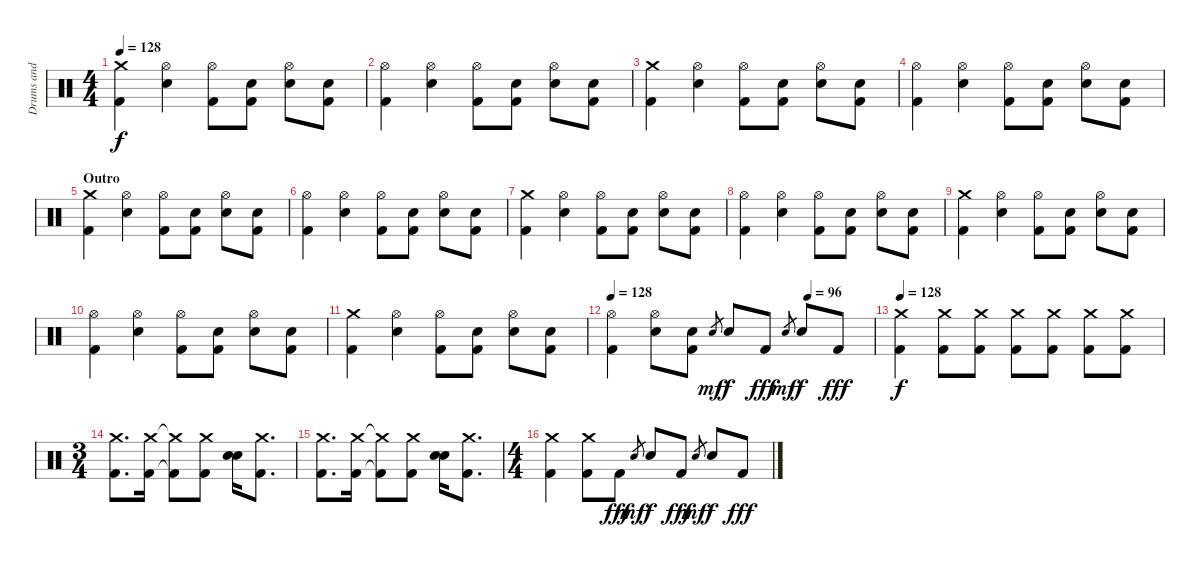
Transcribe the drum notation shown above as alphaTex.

\track ("Drums and Percussion" "Drums and ") {instrument percussion}
\staff {score}
\articulation defaults
\ts (4 4)
\tempo 128
\clef neutral
\ks c
("Crash medium (hit)" "Kick (hit) 2").4{dy f} ("Hi-Hat (open)" "Snare (hit) 2").4 ("Hi-Hat (open)" "Kick (hit) 2").8 ("Snare (hit)" "Kick (hit) 2").8 ("Hi-Hat (open)" "Snare (hit) 2").8 ("Snare (hit)" "Kick (hit) 2").8 |
("Hi-Hat (open)" "Kick (hit) 2").4 ("Hi-Hat (open)" "Snare (hit) 2").4 ("Hi-Hat (open)" "Kick (hit) 2").8 ("Snare (hit)" "Kick (hit) 2").8 ("Hi-Hat (open)" "Snare (hit) 2").8 ("Snare (hit)" "Kick (hit) 2").8 |
("Crash medium (hit)" "Kick (hit) 2").4 ("Hi-Hat (open)" "Snare (hit) 2").4 ("Hi-Hat (open)" "Kick (hit) 2").8 ("Snare (hit)" "Kick (hit) 2").8 ("Hi-Hat (open)" "Snare (hit) 2").8 ("Snare (hit)" "Kick (hit) 2").8 |
("Hi-Hat (open)" "Kick (hit) 2").4 ("Hi-Hat (open)" "Snare (hit) 2").4 ("Hi-Hat (open)" "Kick (hit) 2").8 ("Snare (hit)" "Kick (hit) 2").8 ("Hi-Hat (open)" "Snare (hit) 2").8 ("Snare (hit)" "Kick (hit) 2").8 |
\section ("" "Outro")
("Crash medium (hit)" "Kick (hit) 2").4 ("Hi-Hat (open)" "Snare (hit) 2").4 ("Hi-Hat (open)" "Kick (hit) 2").8 ("Snare (hit)" "Kick (hit) 2").8 ("Hi-Hat (open)" "Snare (hit) 2").8 ("Snare (hit)" "Kick (hit) 2").8 |
("Hi-Hat (open)" "Kick (hit) 2").4 ("Hi-Hat (open)" "Snare (hit) 2").4 ("Hi-Hat (open)" "Kick (hit) 2").8 ("Snare (hit)" "Kick (hit) 2").8 ("Hi-Hat (open)" "Snare (hit) 2").8 ("Snare (hit)" "Kick (hit) 2").8 |
("Crash medium (hit)" "Kick (hit) 2").4 ("Hi-Hat (open)" "Snare (hit) 2").4 ("Hi-Hat (open)" "Kick (hit) 2").8 ("Snare (hit)" "Kick (hit) 2").8 ("Hi-Hat (open)" "Snare (hit) 2").8 ("Snare (hit)" "Kick (hit) 2").8 |
("Hi-Hat (open)" "Kick (hit) 2").4 ("Hi-Hat (open)" "Snare (hit) 2").4 ("Hi-Hat (open)" "Kick (hit) 2").8 ("Snare (hit)" "Kick (hit) 2").8 ("Hi-Hat (open)" "Snare (hit) 2").8 ("Snare (hit)" "Kick (hit) 2").8 |
("Crash medium (hit)" "Kick (hit) 2").4 ("Hi-Hat (open)" "Snare (hit) 2").4 ("Hi-Hat (open)" "Kick (hit) 2").8 ("Snare (hit)" "Kick (hit) 2").8 ("Hi-Hat (open)" "Snare (hit) 2").8 ("Snare (hit)" "Kick (hit) 2").8 |
("Hi-Hat (open)" "Kick (hit) 2").4 ("Hi-Hat (open)" "Snare (hit) 2").4 ("Hi-Hat (open)" "Kick (hit) 2").8 ("Snare (hit)" "Kick (hit) 2").8 ("Hi-Hat (open)" "Snare (hit) 2").8 ("Snare (hit)" "Kick (hit) 2").8 |
("Crash medium (hit)" "Kick (hit) 2").4 ("Hi-Hat (open)" "Snare (hit) 2").4 ("Hi-Hat (open)" "Kick (hit) 2").8 ("Snare (hit)" "Kick (hit) 2").8 ("Hi-Hat (open)" "Snare (hit) 2").8 ("Snare (hit)" "Kick (hit) 2").8 |
\tempo 128
\tempo (96 0.75)
("Hi-Hat (open)" "Kick (hit) 2").4 ("Hi-Hat (open)" "Snare (hit) 2").8 ("Snare (hit)" "Kick (hit) 2").8 "Snare (hit)".8{gr dy mf} "Snare (hit) 2".8{dy f} "Kick (hit) 2".8{dy fff} "Snare (hit)".8{gr dy mf} "Snare (hit) 2".8{dy f} "Kick (hit) 2".8{dy fff} |
\tempo 128
("Crash medium (hit)" "Kick (hit) 2").4{dy f} ("Crash medium (hit)" "Kick (hit) 2").8 ("Crash medium (hit)" "Kick (hit) 2").8 ("Crash medium (hit)" "Kick (hit) 2").8 ("Crash medium (hit)" "Kick (hit) 2").8 ("Crash medium (hit)" "Kick (hit) 2").8 ("Crash medium (hit)" "Kick (hit) 2").8 |
\ts (3 4)
("Crash medium (hit)" "Kick (hit) 2").8{d} ("Crash medium (hit)" "Kick (hit) 2").16 ("Crash medium (hit)"{t} "Kick (hit) 2"{t}).8 ("Crash medium (hit)" "Kick (hit) 2").8 ("Snare (hit)" "Snare (hit)").16 ("Crash medium (hit)" "Kick (hit) 2").8{d} |
("Crash medium (hit)" "Kick (hit) 2").8{d} ("Crash medium (hit)" "Kick (hit) 2").16 ("Crash medium (hit)"{t} "Kick (hit) 2"{t}).8 ("Crash medium (hit)" "Kick (hit) 2").8 ("Snare (hit)" "Snare (hit)").16 ("Crash medium (hit)" "Kick (hit) 2").8{d} |
\ts (4 4)
("Crash medium (hit)" "Kick (hit) 2").4 ("Crash medium (hit)" "Kick (hit) 2").8 "Kick (hit) 2".8{dy fff} "Snare (hit)".8{gr dy mf} "Snare (hit) 2".8{dy f} "Kick (hit) 2".8{dy fff} "Snare (hit)".8{gr dy mf} "Snare (hit) 2".8{dy f} "Kick (hit) 2".8{dy fff}
